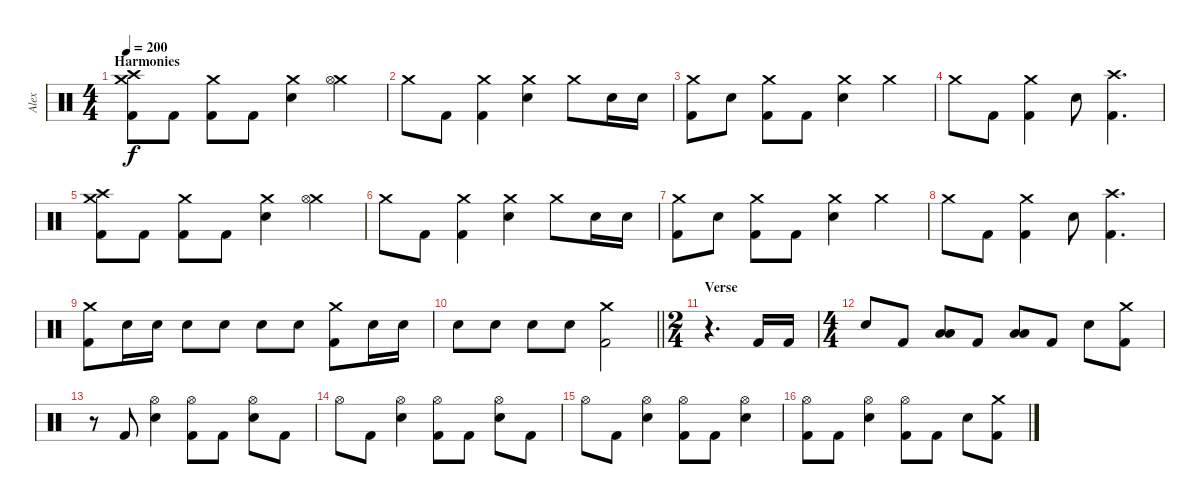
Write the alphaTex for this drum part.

\track ("Alex" "Alex") {instrument percussion}
\staff {score}
\articulation defaults
\ts (4 4)
\section ("" "Harmonies")
\tempo 200
\clef neutral
\ks c
("Crash medium (hit)" "Crash high (hit)" "Kick (hit) 2").8{dy f} "Kick (hit) 2".8 ("Crash medium (hit)" "Kick (hit) 2").8 "Kick (hit) 2".8 ("Crash medium (hit)" "Electric Snare (hit)").4 ("Crash medium (hit)" "Hi-Hat (open)").4 |
"Crash medium (hit)".8 "Kick (hit) 2".8 ("Crash medium (hit)" "Kick (hit) 2").4 ("Crash medium (hit)" "Electric Snare (hit)").4 "Crash medium (hit)".8 "Electric Snare (hit)".16 "Electric Snare (hit)".16 |
("Crash medium (hit)" "Kick (hit) 2").8 "Electric Snare (hit)".8 ("Crash medium (hit)" "Kick (hit) 2").8 "Kick (hit) 2".8 ("Crash medium (hit)" "Electric Snare (hit)").4 "Crash medium (hit)".4 |
"Crash medium (hit)".8 "Kick (hit) 2".8 ("Crash medium (hit)" "Kick (hit) 2").4 "Electric Snare (hit)".8 ("Crash high (hit)" "Kick (hit) 2").4{d} |
("Crash medium (hit)" "Crash high (hit)" "Kick (hit) 2").8 "Kick (hit) 2".8 ("Crash medium (hit)" "Kick (hit) 2").8 "Kick (hit) 2".8 ("Crash medium (hit)" "Electric Snare (hit)").4 ("Crash medium (hit)" "Hi-Hat (open)").4 |
"Crash medium (hit)".8 "Kick (hit) 2".8 ("Crash medium (hit)" "Kick (hit) 2").4 ("Crash medium (hit)" "Electric Snare (hit)").4 "Crash medium (hit)".8 "Electric Snare (hit)".16 "Electric Snare (hit)".16 |
("Crash medium (hit)" "Kick (hit) 2").8 "Electric Snare (hit)".8 ("Crash medium (hit)" "Kick (hit) 2").8 "Kick (hit) 2".8 ("Crash medium (hit)" "Electric Snare (hit)").4 "Crash medium (hit)".4 |
"Crash medium (hit)".8 "Kick (hit) 2".8 ("Crash medium (hit)" "Kick (hit) 2").4 "Electric Snare (hit)".8 ("Crash high (hit)" "Kick (hit) 2").4{d} |
("Crash medium (hit)" "Kick (hit) 2").8 "Electric Snare (hit)".16 "Electric Snare (hit)".16 "Electric Snare (hit)".8 "Electric Snare (hit)".8 "Electric Snare (hit)".8 "Electric Snare (hit)".8 ("Crash medium (hit)" "Kick (hit) 2").8 "Electric Snare (hit)".16 "Electric Snare (hit)".16 |
\barLineRight lightlight "Electric Snare (hit)".8 "Electric Snare (hit)".8 "Electric Snare (hit)".8 "Electric Snare (hit)".8
("Crash medium (hit)" "Kick (hit) 2").2 |
\ts (2 4)
\section ("" "Verse")
r.4{d} "Kick (hit) 2".16 "Kick (hit) 2".16 |
\ts (4 4)
"Electric Snare (hit)".8 "Kick (hit) 2".8 ("Low Floor Tom (hit)" "Low Tom (hit)").8 "Kick (hit) 2".8 ("Low Floor Tom (hit)" "Low Tom (hit)").8 "Kick (hit) 2".8 "Electric Snare (hit)".8 ("Crash medium (hit)" "Kick (hit) 2").8 |
r.8 "Kick (hit) 2".8 ("Hi-Hat (open)" "Electric Snare (hit)").4 ("Hi-Hat (open)" "Kick (hit) 2").8 "Kick (hit) 2".8 ("Hi-Hat (open)" "Electric Snare (hit)").8 "Kick (hit) 2".8 |
"Hi-Hat (open)".8 "Kick (hit) 2".8 ("Hi-Hat (open)" "Electric Snare (hit)").4 ("Hi-Hat (open)" "Kick (hit) 2").8 "Kick (hit) 2".8 ("Hi-Hat (open)" "Electric Snare (hit)").8 "Kick (hit) 2".8 |
"Hi-Hat (open)".8 "Kick (hit) 2".8 ("Hi-Hat (open)" "Electric Snare (hit)").4 ("Hi-Hat (open)" "Kick (hit) 2").8 "Kick (hit) 2".8 ("Hi-Hat (open)" "Electric Snare (hit)").4 |
("Hi-Hat (open)" "Kick (hit) 2").8 "Kick (hit) 2".8 ("Hi-Hat (open)" "Electric Snare (hit)").4 ("Hi-Hat (open)" "Kick (hit) 2").8 "Kick (hit) 2".8 "Electric Snare (hit)".8 ("Crash medium (hit)" "Kick (hit) 2").8
